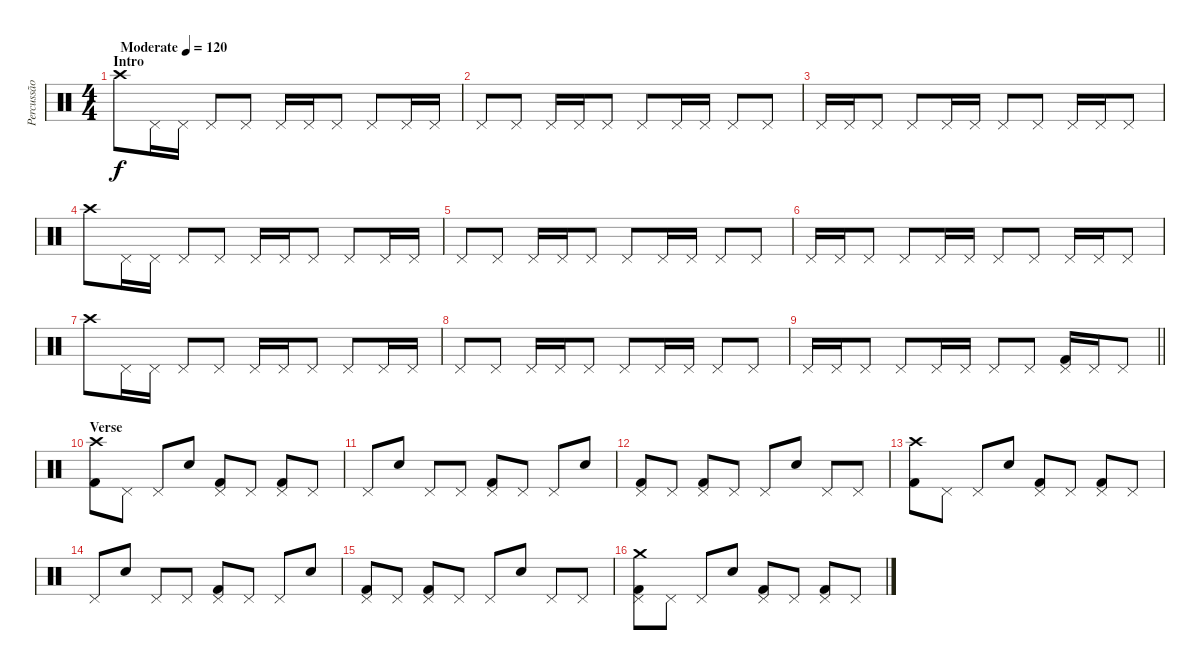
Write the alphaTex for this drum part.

\track ("Percussão" "Percussão") {instrument percussion}
\staff {score}
\articulation defaults
\ts (4 4)
\section ("" "Intro")
\tempo (120 "Moderate")
\clef neutral
\ks c "Crash high (hit)".8{dy f} "Pedal Hi-Hat (hit)".16 "Pedal Hi-Hat (hit)".16 "Pedal Hi-Hat (hit)".8 "Pedal Hi-Hat (hit)".8 "Pedal Hi-Hat (hit)".16 "Pedal Hi-Hat (hit)".16 "Pedal Hi-Hat (hit)".8 "Pedal Hi-Hat (hit)".8 "Pedal Hi-Hat (hit)".16 "Pedal Hi-Hat (hit)".16
|
"Pedal Hi-Hat (hit)".8 "Pedal Hi-Hat (hit)".8 "Pedal Hi-Hat (hit)".16 "Pedal Hi-Hat (hit)".16 "Pedal Hi-Hat (hit)".8 "Pedal Hi-Hat (hit)".8 "Pedal Hi-Hat (hit)".16 "Pedal Hi-Hat (hit)".16 "Pedal Hi-Hat (hit)".8 "Pedal Hi-Hat (hit)".8 |
"Pedal Hi-Hat (hit)".16 "Pedal Hi-Hat (hit)".16 "Pedal Hi-Hat (hit)".8 "Pedal Hi-Hat (hit)".8 "Pedal Hi-Hat (hit)".16 "Pedal Hi-Hat (hit)".16 "Pedal Hi-Hat (hit)".8 "Pedal Hi-Hat (hit)".8 "Pedal Hi-Hat (hit)".16 "Pedal Hi-Hat (hit)".16 "Pedal Hi-Hat (hit)".8 |
"Crash high (hit)".8 "Pedal Hi-Hat (hit)".16 "Pedal Hi-Hat (hit)".16 "Pedal Hi-Hat (hit)".8 "Pedal Hi-Hat (hit)".8 "Pedal Hi-Hat (hit)".16 "Pedal Hi-Hat (hit)".16 "Pedal Hi-Hat (hit)".8 "Pedal Hi-Hat (hit)".8 "Pedal Hi-Hat (hit)".16 "Pedal Hi-Hat (hit)".16 |
"Pedal Hi-Hat (hit)".8 "Pedal Hi-Hat (hit)".8 "Pedal Hi-Hat (hit)".16 "Pedal Hi-Hat (hit)".16 "Pedal Hi-Hat (hit)".8 "Pedal Hi-Hat (hit)".8 "Pedal Hi-Hat (hit)".16 "Pedal Hi-Hat (hit)".16 "Pedal Hi-Hat (hit)".8 "Pedal Hi-Hat (hit)".8 |
"Pedal Hi-Hat (hit)".16 "Pedal Hi-Hat (hit)".16 "Pedal Hi-Hat (hit)".8 "Pedal Hi-Hat (hit)".8 "Pedal Hi-Hat (hit)".16 "Pedal Hi-Hat (hit)".16 "Pedal Hi-Hat (hit)".8 "Pedal Hi-Hat (hit)".8 "Pedal Hi-Hat (hit)".16 "Pedal Hi-Hat (hit)".16 "Pedal Hi-Hat (hit)".8 |
"Crash high (hit)".8 "Pedal Hi-Hat (hit)".16 "Pedal Hi-Hat (hit)".16 "Pedal Hi-Hat (hit)".8 "Pedal Hi-Hat (hit)".8 "Pedal Hi-Hat (hit)".16 "Pedal Hi-Hat (hit)".16 "Pedal Hi-Hat (hit)".8 "Pedal Hi-Hat (hit)".8 "Pedal Hi-Hat (hit)".16 "Pedal Hi-Hat (hit)".16 |
"Pedal Hi-Hat (hit)".8 "Pedal Hi-Hat (hit)".8 "Pedal Hi-Hat (hit)".16 "Pedal Hi-Hat (hit)".16 "Pedal Hi-Hat (hit)".8 "Pedal Hi-Hat (hit)".8 "Pedal Hi-Hat (hit)".16 "Pedal Hi-Hat (hit)".16 "Pedal Hi-Hat (hit)".8 "Pedal Hi-Hat (hit)".8 |
\barLineRight lightlight "Pedal Hi-Hat (hit)".16 "Pedal Hi-Hat (hit)".16 "Pedal Hi-Hat (hit)".8 "Pedal Hi-Hat (hit)".8 "Pedal Hi-Hat (hit)".16 "Pedal Hi-Hat (hit)".16 "Pedal Hi-Hat (hit)".8 "Pedal Hi-Hat (hit)".8
("Pedal Hi-Hat (hit)" "Kick (hit) 2").16 "Pedal Hi-Hat (hit)".16 "Pedal Hi-Hat (hit)".8 |
\section ("" "Verse")
("Crash high (hit)" "Kick (hit) 2").8 "Pedal Hi-Hat (hit)".8 "Pedal Hi-Hat (hit)".8 "Snare (hit) 2".8 ("Pedal Hi-Hat (hit)" "Kick (hit) 2").8 "Pedal Hi-Hat (hit)".8 ("Pedal Hi-Hat (hit)" "Kick (hit) 2").8 "Pedal Hi-Hat (hit)".8 |
"Pedal Hi-Hat (hit)".8 "Snare (hit) 2".8 "Pedal Hi-Hat (hit)".8 "Pedal Hi-Hat (hit)".8 ("Pedal Hi-Hat (hit)" "Kick (hit) 2").8 "Pedal Hi-Hat (hit)".8 "Pedal Hi-Hat (hit)".8 "Snare (hit) 2".8 |
("Pedal Hi-Hat (hit)" "Kick (hit) 2").8 "Pedal Hi-Hat (hit)".8 ("Pedal Hi-Hat (hit)" "Kick (hit) 2").8 "Pedal Hi-Hat (hit)".8 "Pedal Hi-Hat (hit)".8 "Snare (hit) 2".8 "Pedal Hi-Hat (hit)".8 "Pedal Hi-Hat (hit)".8 |
("Crash high (hit)" "Kick (hit) 2").8 "Pedal Hi-Hat (hit)".8 "Pedal Hi-Hat (hit)".8 "Snare (hit) 2".8 ("Pedal Hi-Hat (hit)" "Kick (hit) 2").8 "Pedal Hi-Hat (hit)".8 ("Pedal Hi-Hat (hit)" "Kick (hit) 2").8 "Pedal Hi-Hat (hit)".8 |
"Pedal Hi-Hat (hit)".8 "Snare (hit) 2".8 "Pedal Hi-Hat (hit)".8 "Pedal Hi-Hat (hit)".8 ("Pedal Hi-Hat (hit)" "Kick (hit) 2").8 "Pedal Hi-Hat (hit)".8 "Pedal Hi-Hat (hit)".8 "Snare (hit) 2".8 |
("Pedal Hi-Hat (hit)" "Kick (hit) 2").8 "Pedal Hi-Hat (hit)".8 ("Pedal Hi-Hat (hit)" "Kick (hit) 2").8 "Pedal Hi-Hat (hit)".8 "Pedal Hi-Hat (hit)".8 "Snare (hit) 2".8 "Pedal Hi-Hat (hit)".8 "Pedal Hi-Hat (hit)".8 |
("Pedal Hi-Hat (hit)" "Crash medium (hit)" "Kick (hit) 2").8 "Pedal Hi-Hat (hit)".8 "Pedal Hi-Hat (hit)".8 "Snare (hit) 2".8 ("Pedal Hi-Hat (hit)" "Kick (hit) 2").8 "Pedal Hi-Hat (hit)".8 ("Pedal Hi-Hat (hit)" "Kick (hit) 2").8 "Pedal Hi-Hat (hit)".8
